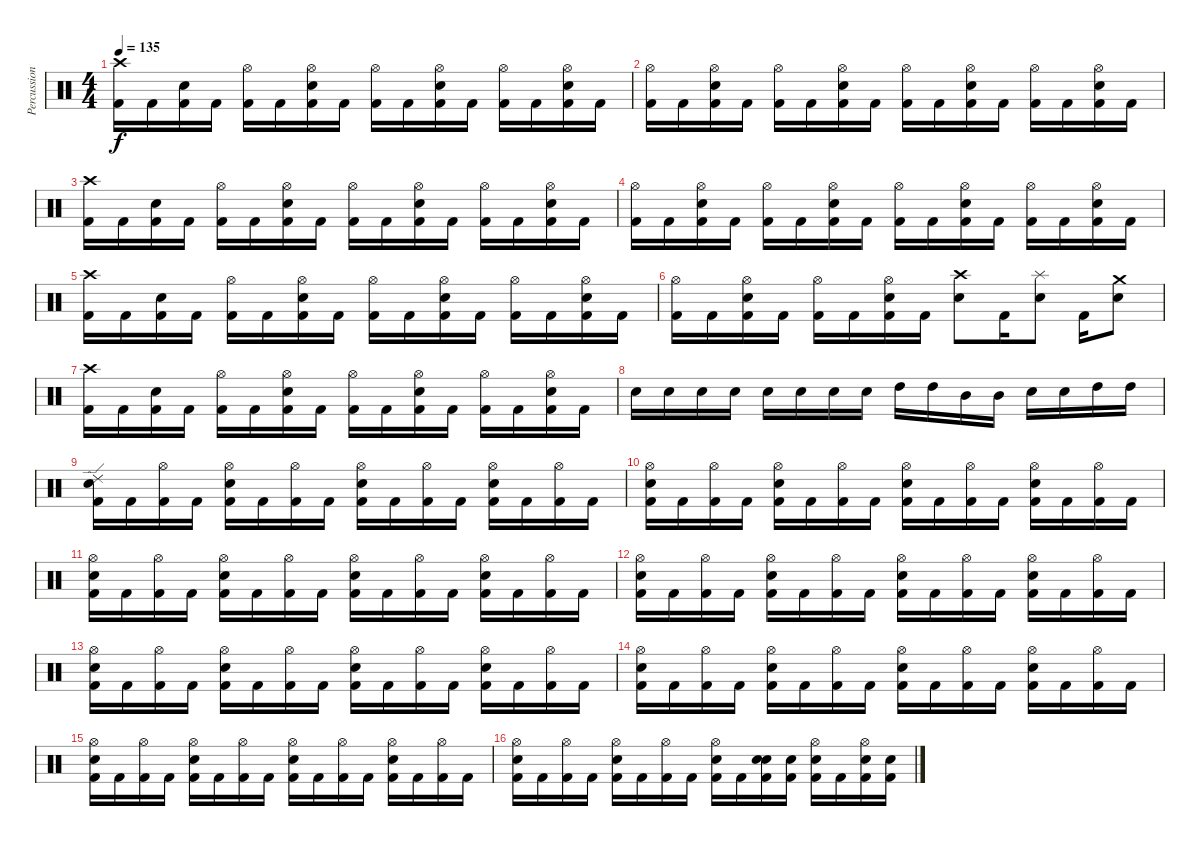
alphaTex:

\track ("Percussion" "Percussion") {instrument percussion}
\staff {score}
\articulation defaults
\ts (4 4)
\tempo 135
\clef neutral
\ks c
("Crash high (hit)" "Kick (hit) 2").16{dy f} "Kick (hit) 2".16 ("Snare (hit) 2" "Kick (hit) 2").16 "Kick (hit) 2".16 ("Hi-Hat (open)" "Kick (hit) 2").16 "Kick (hit) 2".16 ("Hi-Hat (open)" "Snare (hit) 2" "Kick (hit) 2").16 "Kick (hit) 2".16 ("Hi-Hat (open)" "Kick (hit) 2").16 "Kick (hit) 2".16 ("Hi-Hat (open)" "Snare (hit) 2" "Kick (hit) 2").16 "Kick (hit) 2".16 ("Hi-Hat (open)" "Kick (hit) 2").16 "Kick (hit) 2".16 ("Hi-Hat (open)" "Snare (hit) 2" "Kick (hit) 2").16 "Kick (hit) 2".16 |
("Hi-Hat (open)" "Kick (hit) 2").16 "Kick (hit) 2".16 ("Hi-Hat (open)" "Snare (hit) 2" "Kick (hit) 2").16 "Kick (hit) 2".16 ("Hi-Hat (open)" "Kick (hit) 2").16 "Kick (hit) 2".16 ("Hi-Hat (open)" "Snare (hit) 2" "Kick (hit) 2").16 "Kick (hit) 2".16 ("Hi-Hat (open)" "Kick (hit) 2").16 "Kick (hit) 2".16 ("Hi-Hat (open)" "Snare (hit) 2" "Kick (hit) 2").16 "Kick (hit) 2".16 ("Hi-Hat (open)" "Kick (hit) 2").16 "Kick (hit) 2".16 ("Hi-Hat (open)" "Snare (hit) 2" "Kick (hit) 2").16 "Kick (hit) 2".16 |
("Crash high (hit)" "Kick (hit) 2").16 "Kick (hit) 2".16 ("Snare (hit) 2" "Kick (hit) 2").16 "Kick (hit) 2".16 ("Hi-Hat (open)" "Kick (hit) 2").16 "Kick (hit) 2".16 ("Hi-Hat (open)" "Snare (hit) 2" "Kick (hit) 2").16 "Kick (hit) 2".16 ("Hi-Hat (open)" "Kick (hit) 2").16 "Kick (hit) 2".16 ("Hi-Hat (open)" "Snare (hit) 2" "Kick (hit) 2").16 "Kick (hit) 2".16 ("Hi-Hat (open)" "Kick (hit) 2").16 "Kick (hit) 2".16 ("Hi-Hat (open)" "Snare (hit) 2" "Kick (hit) 2").16 "Kick (hit) 2".16 |
("Hi-Hat (open)" "Kick (hit) 2").16 "Kick (hit) 2".16 ("Hi-Hat (open)" "Snare (hit) 2" "Kick (hit) 2").16 "Kick (hit) 2".16 ("Hi-Hat (open)" "Kick (hit) 2").16 "Kick (hit) 2".16 ("Hi-Hat (open)" "Snare (hit) 2" "Kick (hit) 2").16 "Kick (hit) 2".16 ("Hi-Hat (open)" "Kick (hit) 2").16 "Kick (hit) 2".16 ("Hi-Hat (open)" "Snare (hit) 2" "Kick (hit) 2").16 "Kick (hit) 2".16 ("Hi-Hat (open)" "Kick (hit) 2").16 "Kick (hit) 2".16 ("Hi-Hat (open)" "Snare (hit) 2" "Kick (hit) 2").16 "Kick (hit) 2".16 |
("Crash high (hit)" "Kick (hit) 2").16 "Kick (hit) 2".16 ("Snare (hit) 2" "Kick (hit) 2").16 "Kick (hit) 2".16 ("Hi-Hat (open)" "Kick (hit) 2").16 "Kick (hit) 2".16 ("Hi-Hat (open)" "Snare (hit) 2" "Kick (hit) 2").16 "Kick (hit) 2".16 ("Hi-Hat (open)" "Kick (hit) 2").16 "Kick (hit) 2".16 ("Hi-Hat (open)" "Snare (hit) 2" "Kick (hit) 2").16 "Kick (hit) 2".16 ("Hi-Hat (open)" "Kick (hit) 2").16 "Kick (hit) 2".16 ("Hi-Hat (open)" "Snare (hit) 2" "Kick (hit) 2").16 "Kick (hit) 2".16 |
("Hi-Hat (open)" "Kick (hit) 2").16 "Kick (hit) 2".16 ("Hi-Hat (open)" "Snare (hit) 2" "Kick (hit) 2").16 "Kick (hit) 2".16 ("Hi-Hat (open)" "Kick (hit) 2").16 "Kick (hit) 2".16 ("Hi-Hat (open)" "Snare (hit) 2" "Kick (hit) 2").16 "Kick (hit) 2".16 ("Crash high (hit)" "Snare (hit) 2").8 "Kick (hit) 2".16 ("Splash (hit)" "Snare (hit) 2").8 "Kick (hit) 2".16 ("Crash medium (hit)" "Snare (hit) 2").8 |
("Crash high (hit)" "Kick (hit) 2").16 "Kick (hit) 2".16 ("Snare (hit) 2" "Kick (hit) 2").16 "Kick (hit) 2".16 ("Hi-Hat (open)" "Kick (hit) 2").16 "Kick (hit) 2".16 ("Hi-Hat (open)" "Snare (hit) 2" "Kick (hit) 2").16 "Kick (hit) 2".16 ("Hi-Hat (open)" "Kick (hit) 2").16 "Kick (hit) 2".16 ("Hi-Hat (open)" "Snare (hit) 2" "Kick (hit) 2").16 "Kick (hit) 2".16 ("Hi-Hat (open)" "Kick (hit) 2").16 "Kick (hit) 2".16 ("Hi-Hat (open)" "Snare (hit) 2" "Kick (hit) 2").16 "Kick (hit) 2".16 |
"Snare (hit) 2".16 "Snare (hit) 2".16 "Snare (hit) 2".16 "Snare (hit) 2".16 "Snare (hit) 2".16 "Snare (hit) 2".16 "Snare (hit) 2".16 "Snare (hit) 2".16 "High Tom (hit)".16 "High Tom (hit)".16 "Mid Tom (hit)".16 "Mid Tom (hit)".16 "Snare (hit) 2".16 "Snare (hit) 2".16 "High Tom (hit)".16 "High Tom (hit)".16 |
("Ride (edge) 2" "Snare (hit) 2" "Kick (hit) 2").16 "Kick (hit) 2".16 ("Hi-Hat (open)" "Kick (hit) 2").16 "Kick (hit) 2".16 ("Hi-Hat (open)" "Snare (hit) 2" "Kick (hit) 2").16 "Kick (hit) 2".16 ("Hi-Hat (open)" "Kick (hit) 2").16 "Kick (hit) 2".16 ("Hi-Hat (open)" "Snare (hit) 2" "Kick (hit) 2").16 "Kick (hit) 2".16 ("Hi-Hat (open)" "Kick (hit) 2").16 "Kick (hit) 2".16 ("Hi-Hat (open)" "Snare (hit) 2" "Kick (hit) 2").16 "Kick (hit) 2".16 ("Hi-Hat (open)" "Kick (hit) 2").16 "Kick (hit) 2".16 |
("Hi-Hat (open)" "Snare (hit) 2" "Kick (hit) 2").16 "Kick (hit) 2".16 ("Hi-Hat (open)" "Kick (hit) 2").16 "Kick (hit) 2".16 ("Hi-Hat (open)" "Snare (hit) 2" "Kick (hit) 2").16 "Kick (hit) 2".16 ("Hi-Hat (open)" "Kick (hit) 2").16 "Kick (hit) 2".16 ("Hi-Hat (open)" "Snare (hit) 2" "Kick (hit) 2").16 "Kick (hit) 2".16 ("Hi-Hat (open)" "Kick (hit) 2").16 "Kick (hit) 2".16 ("Hi-Hat (open)" "Snare (hit) 2" "Kick (hit) 2").16 "Kick (hit) 2".16 ("Hi-Hat (open)" "Kick (hit) 2").16 "Kick (hit) 2".16 |
("Hi-Hat (open)" "Snare (hit) 2" "Kick (hit) 2").16 "Kick (hit) 2".16 ("Hi-Hat (open)" "Kick (hit) 2").16 "Kick (hit) 2".16 ("Hi-Hat (open)" "Snare (hit) 2" "Kick (hit) 2").16 "Kick (hit) 2".16 ("Hi-Hat (open)" "Kick (hit) 2").16 "Kick (hit) 2".16 ("Hi-Hat (open)" "Snare (hit) 2" "Kick (hit) 2").16 "Kick (hit) 2".16 ("Hi-Hat (open)" "Kick (hit) 2").16 "Kick (hit) 2".16 ("Hi-Hat (open)" "Snare (hit) 2" "Kick (hit) 2").16 "Kick (hit) 2".16 ("Hi-Hat (open)" "Kick (hit) 2").16 "Kick (hit) 2".16 |
("Hi-Hat (open)" "Snare (hit) 2" "Kick (hit) 2").16 "Kick (hit) 2".16 ("Hi-Hat (open)" "Kick (hit) 2").16 "Kick (hit) 2".16 ("Hi-Hat (open)" "Snare (hit) 2" "Kick (hit) 2").16 "Kick (hit) 2".16 ("Hi-Hat (open)" "Kick (hit) 2").16 "Kick (hit) 2".16 ("Hi-Hat (open)" "Snare (hit) 2" "Kick (hit) 2").16 "Kick (hit) 2".16 ("Hi-Hat (open)" "Kick (hit) 2").16 "Kick (hit) 2".16 ("Hi-Hat (open)" "Snare (hit) 2" "Kick (hit) 2").16 "Kick (hit) 2".16 ("Hi-Hat (open)" "Kick (hit) 2").16 "Kick (hit) 2".16 |
("Hi-Hat (open)" "Snare (hit) 2" "Kick (hit) 2").16 "Kick (hit) 2".16 ("Hi-Hat (open)" "Kick (hit) 2").16 "Kick (hit) 2".16 ("Hi-Hat (open)" "Snare (hit) 2" "Kick (hit) 2").16 "Kick (hit) 2".16 ("Hi-Hat (open)" "Kick (hit) 2").16 "Kick (hit) 2".16 ("Hi-Hat (open)" "Snare (hit) 2" "Kick (hit) 2").16 "Kick (hit) 2".16 ("Hi-Hat (open)" "Kick (hit) 2").16 "Kick (hit) 2".16 ("Hi-Hat (open)" "Snare (hit) 2" "Kick (hit) 2").16 "Kick (hit) 2".16 ("Hi-Hat (open)" "Kick (hit) 2").16 "Kick (hit) 2".16 |
("Hi-Hat (open)" "Snare (hit) 2" "Kick (hit) 2").16 "Kick (hit) 2".16 ("Hi-Hat (open)" "Kick (hit) 2").16 "Kick (hit) 2".16 ("Hi-Hat (open)" "Snare (hit) 2" "Kick (hit) 2").16 "Kick (hit) 2".16 ("Hi-Hat (open)" "Kick (hit) 2").16 "Kick (hit) 2".16 ("Hi-Hat (open)" "Snare (hit) 2" "Kick (hit) 2").16 "Kick (hit) 2".16 ("Hi-Hat (open)" "Kick (hit) 2").16 "Kick (hit) 2".16 ("Hi-Hat (open)" "Snare (hit) 2" "Kick (hit) 2").16 "Kick (hit) 2".16 ("Hi-Hat (open)" "Kick (hit) 2").16 "Kick (hit) 2".16 |
("Hi-Hat (open)" "Snare (hit) 2" "Kick (hit) 2").16 "Kick (hit) 2".16 ("Hi-Hat (open)" "Kick (hit) 2").16 "Kick (hit) 2".16 ("Hi-Hat (open)" "Snare (hit) 2" "Kick (hit) 2").16 "Kick (hit) 2".16 ("Hi-Hat (open)" "Kick (hit) 2").16 "Kick (hit) 2".16 ("Hi-Hat (open)" "Snare (hit) 2" "Kick (hit) 2").16 "Kick (hit) 2".16 ("Hi-Hat (open)" "Kick (hit) 2").16 "Kick (hit) 2".16 ("Hi-Hat (open)" "Snare (hit) 2" "Kick (hit) 2").16 "Kick (hit) 2".16 ("Hi-Hat (open)" "Kick (hit) 2").16 "Kick (hit) 2".16 |
("Hi-Hat (open)" "Snare (hit) 2" "Kick (hit) 2").16 "Kick (hit) 2".16 ("Hi-Hat (open)" "Kick (hit) 2").16 "Kick (hit) 2".16 ("Hi-Hat (open)" "Snare (hit) 2" "Kick (hit) 2").16 "Kick (hit) 2".16 ("Hi-Hat (open)" "Kick (hit) 2").16 "Kick (hit) 2".16 ("Hi-Hat (open)" "Snare (hit) 2" "Kick (hit) 2").16 "Kick (hit) 2".16 ("Snare (hit)" "Snare (hit)" "Kick (hit) 2").16 ("Snare (hit) 2" "Kick (hit) 2").16 ("Hi-Hat (open)" "Snare (hit) 2" "Kick (hit) 2").16 "Kick (hit) 2".16 ("Hi-Hat (open)" "Snare (hit) 2" "Kick (hit) 2").16 ("Snare (hit) 2" "Kick (hit) 2").16
